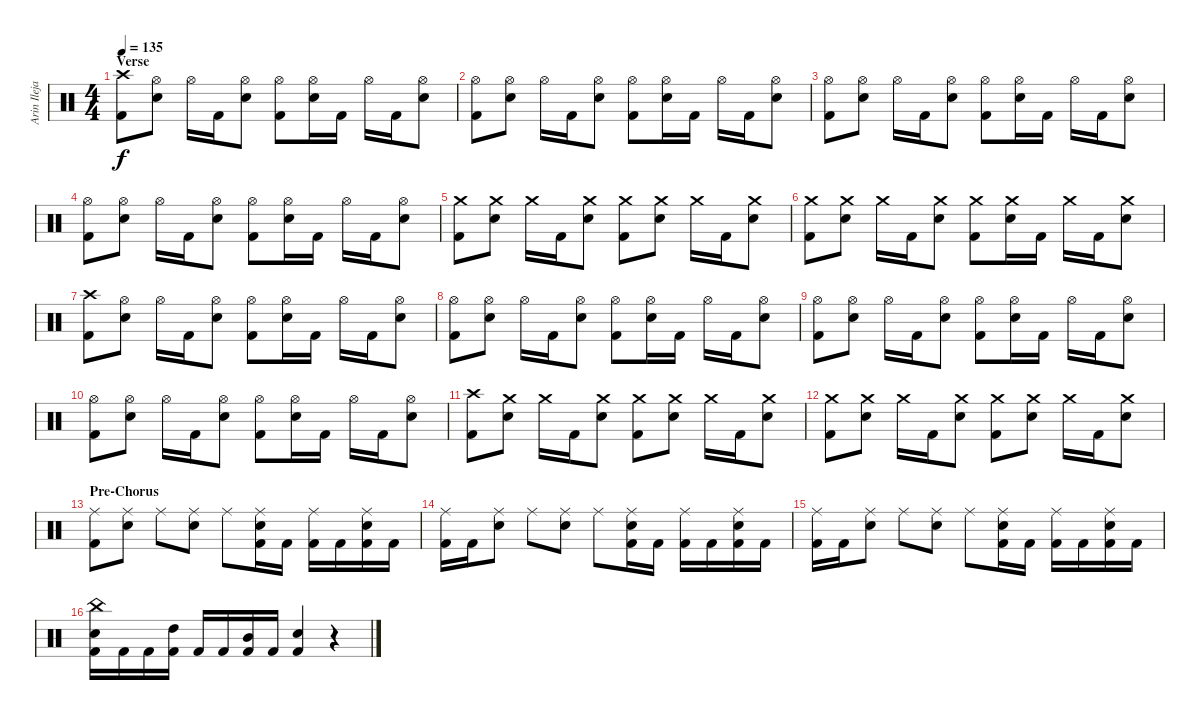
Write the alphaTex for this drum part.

\track ("Arin Ilejay" "Arin Ileja") {instrument percussion}
\staff {score}
\articulation defaults
\ts (4 4)
\section ("" "Verse")
\tempo 135
\clef neutral
\ks c
("Crash high (hit)" "Kick (hit) 2").8{dy f} ("Hi-Hat (open)" "Snare (hit) 2").8 "Hi-Hat (open)".16 "Kick (hit) 2".16 ("Hi-Hat (open)" "Snare (hit) 2").8 ("Hi-Hat (open)" "Kick (hit) 2").8 ("Hi-Hat (open)" "Snare (hit) 2").16 "Kick (hit) 2".16 "Hi-Hat (open)".16 "Kick (hit) 2".16 ("Hi-Hat (open)" "Snare (hit) 2").8 |
("Kick (hit) 2" "Hi-Hat (open)").8 ("Hi-Hat (open)" "Snare (hit) 2").8 "Hi-Hat (open)".16 "Kick (hit) 2".16 ("Hi-Hat (open)" "Snare (hit) 2").8 ("Hi-Hat (open)" "Kick (hit) 2").8 ("Hi-Hat (open)" "Snare (hit) 2").16 "Kick (hit) 2".16 "Hi-Hat (open)".16 "Kick (hit) 2".16 ("Hi-Hat (open)" "Snare (hit) 2").8 |
("Kick (hit) 2" "Hi-Hat (open)").8 ("Hi-Hat (open)" "Snare (hit) 2").8 "Hi-Hat (open)".16 "Kick (hit) 2".16 ("Hi-Hat (open)" "Snare (hit) 2").8 ("Hi-Hat (open)" "Kick (hit) 2").8 ("Hi-Hat (open)" "Snare (hit) 2").16 "Kick (hit) 2".16 "Hi-Hat (open)".16 "Kick (hit) 2".16 ("Hi-Hat (open)" "Snare (hit) 2").8 |
("Kick (hit) 2" "Hi-Hat (open)").8 ("Hi-Hat (open)" "Snare (hit) 2").8 "Hi-Hat (open)".16 "Kick (hit) 2".16 ("Hi-Hat (open)" "Snare (hit) 2").8 ("Hi-Hat (open)" "Kick (hit) 2").8 ("Hi-Hat (open)" "Snare (hit) 2").16 "Kick (hit) 2".16 "Hi-Hat (open)".16 "Kick (hit) 2".16 ("Hi-Hat (open)" "Snare (hit) 2").8 |
("Crash medium (hit)" "Kick (hit) 2").8 ("Snare (hit) 2" "Crash medium (hit)").8 "Crash medium (hit)".16 "Kick (hit) 2".16 ("Snare (hit) 2" "Crash medium (hit)").8 ("Crash medium (hit)" "Kick (hit) 2").8 ("Snare (hit) 2" "Crash medium (hit)").8 "Crash medium (hit)".16 "Kick (hit) 2".16 ("Snare (hit) 2" "Crash medium (hit)").8 |
("Crash medium (hit)" "Kick (hit) 2").8 ("Snare (hit) 2" "Crash medium (hit)").8 "Crash medium (hit)".16 "Kick (hit) 2".16 ("Snare (hit) 2" "Crash medium (hit)").8 ("Crash medium (hit)" "Kick (hit) 2").8 ("Snare (hit) 2" "Crash medium (hit)").16 "Kick (hit) 2".16 "Crash medium (hit)".16 "Kick (hit) 2".16 ("Snare (hit) 2" "Crash medium (hit)").8 |
("Crash high (hit)" "Kick (hit) 2").8 ("Hi-Hat (open)" "Snare (hit) 2").8 "Hi-Hat (open)".16 "Kick (hit) 2".16 ("Hi-Hat (open)" "Snare (hit) 2").8 ("Hi-Hat (open)" "Kick (hit) 2").8 ("Hi-Hat (open)" "Snare (hit) 2").16 "Kick (hit) 2".16 "Hi-Hat (open)".16 "Kick (hit) 2".16 ("Hi-Hat (open)" "Snare (hit) 2").8 |
("Kick (hit) 2" "Hi-Hat (open)").8 ("Hi-Hat (open)" "Snare (hit) 2").8 "Hi-Hat (open)".16 "Kick (hit) 2".16 ("Hi-Hat (open)" "Snare (hit) 2").8 ("Hi-Hat (open)" "Kick (hit) 2").8 ("Hi-Hat (open)" "Snare (hit) 2").16 "Kick (hit) 2".16 "Hi-Hat (open)".16 "Kick (hit) 2".16 ("Hi-Hat (open)" "Snare (hit) 2").8 |
("Kick (hit) 2" "Hi-Hat (open)").8 ("Hi-Hat (open)" "Snare (hit) 2").8 "Hi-Hat (open)".16 "Kick (hit) 2".16 ("Hi-Hat (open)" "Snare (hit) 2").8 ("Hi-Hat (open)" "Kick (hit) 2").8 ("Hi-Hat (open)" "Snare (hit) 2").16 "Kick (hit) 2".16 "Hi-Hat (open)".16 "Kick (hit) 2".16 ("Hi-Hat (open)" "Snare (hit) 2").8 |
("Kick (hit) 2" "Hi-Hat (open)").8 ("Hi-Hat (open)" "Snare (hit) 2").8 "Hi-Hat (open)".16 "Kick (hit) 2".16 ("Hi-Hat (open)" "Snare (hit) 2").8 ("Hi-Hat (open)" "Kick (hit) 2").8 ("Hi-Hat (open)" "Snare (hit) 2").16 "Kick (hit) 2".16 "Hi-Hat (open)".16 "Kick (hit) 2".16 ("Hi-Hat (open)" "Snare (hit) 2").8 |
("Kick (hit) 2" "Crash high (hit)").8 ("Snare (hit) 2" "Crash medium (hit)").8 "Crash medium (hit)".16 "Kick (hit) 2".16 ("Snare (hit) 2" "Crash medium (hit)").8 ("Crash medium (hit)" "Kick (hit) 2").8 ("Snare (hit) 2" "Crash medium (hit)").8 "Crash medium (hit)".16 "Kick (hit) 2".16 ("Snare (hit) 2" "Crash medium (hit)").8 |
("Crash medium (hit)" "Kick (hit) 2").8 ("Snare (hit) 2" "Crash medium (hit)").8 "Crash medium (hit)".16 "Kick (hit) 2".16 ("Snare (hit) 2" "Crash medium (hit)").8 ("Crash medium (hit)" "Kick (hit) 2").8 ("Snare (hit) 2" "Crash medium (hit)").8 "Crash medium (hit)".16 "Kick (hit) 2".16 ("Snare (hit) 2" "Crash medium (hit)").8 |
\section ("" "Pre-Chorus")
("Ride (middle)" "Kick (hit) 2").8 ("Ride (middle)" "Snare (hit) 2").8 "Ride (middle)".8 ("Ride (middle)" "Snare (hit) 2").8 "Ride (middle)".8 ("Ride (middle)" "Snare (hit) 2" "Kick (hit) 2").16 "Kick (hit) 2".16 ("Ride (middle)" "Kick (hit) 2").16 "Kick (hit) 2".16 ("Ride (middle)" "Snare (hit) 2" "Kick (hit) 2").16 "Kick (hit) 2".16 |
("Ride (middle)" "Kick (hit) 2").16 "Kick (hit) 2".16 ("Ride (middle)" "Snare (hit) 2").8 "Ride (middle)".8 ("Ride (middle)" "Snare (hit) 2").8 "Ride (middle)".8 ("Ride (middle)" "Snare (hit) 2" "Kick (hit) 2").16 "Kick (hit) 2".16 ("Ride (middle)" "Kick (hit) 2").16 "Kick (hit) 2".16 ("Ride (middle)" "Snare (hit) 2" "Kick (hit) 2").16 "Kick (hit) 2".16 |
("Ride (middle)" "Kick (hit) 2").16 "Kick (hit) 2".16 ("Ride (middle)" "Snare (hit) 2").8 "Ride (middle)".8 ("Ride (middle)" "Snare (hit) 2").8 "Ride (middle)".8 ("Ride (middle)" "Snare (hit) 2" "Kick (hit) 2").16 "Kick (hit) 2".16 ("Ride (middle)" "Kick (hit) 2").16 "Kick (hit) 2".16 ("Ride (middle)" "Snare (hit) 2" "Kick (hit) 2").16 "Kick (hit) 2".16 |
("China (hit)" "Kick (hit) 2" "Snare (hit) 2").16 "Kick (hit) 2".16 "Kick (hit) 2".16 ("Kick (hit) 2" "High Tom (hit)").16 "Kick (hit) 2".16 "Kick (hit) 2".16 ("Kick (hit) 2" "Mid Tom (hit)").16 "Kick (hit) 2".16 ("Kick (hit) 2" "Snare (hit) 2").4 r.4
